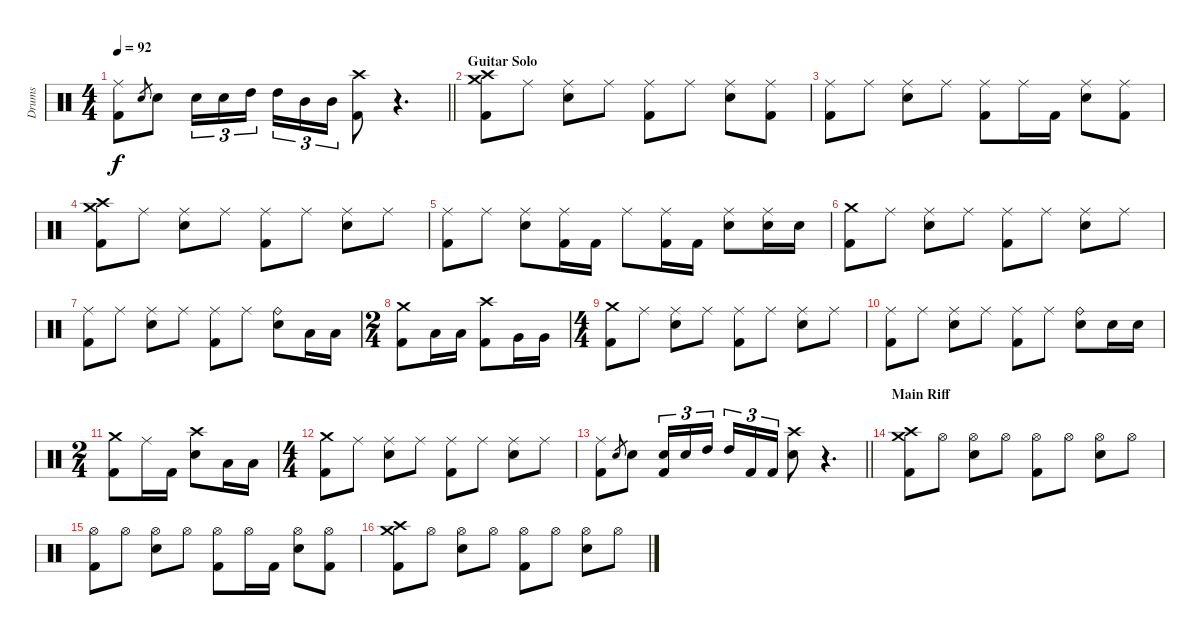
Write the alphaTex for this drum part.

\track ("Drums" "Drums") {instrument percussion}
\staff {score}
\articulation defaults
\ts (4 4)
\tempo 92
\clef neutral
\barLineRight lightlight
\ks c
("Ride (middle)" "Kick (hit) 2").8{dy f} "Electric Snare (hit)".8{gr} "Electric Snare (hit)".8 "Electric Snare (hit)".16{tu (3 2)} "Electric Snare (hit)".16{tu (3 2)} "High Tom (hit)".16{tu (3 2) beam splitsecondary} "High Tom (hit)".16{tu (3 2)} "Mid Tom (hit)".16{tu (3 2)} "Mid Tom (hit)".16{tu (3 2)} ("Crash high (hit)" "Kick (hit) 2").8 r.4{d volume 0} |
\section ("" "Guitar Solo")
("Crash medium (hit)" "Crash high (hit)" "Kick (hit) 2").8{volume 16 balance 8} "Ride (middle)".8 ("Ride (middle)" "Electric Snare (hit)").8 "Ride (middle)".8 ("Ride (middle)" "Kick (hit) 2").8 "Ride (middle)".8 ("Ride (middle)" "Electric Snare (hit)").8 ("Ride (middle)" "Kick (hit) 2").8 |
("Ride (middle)" "Kick (hit) 2").8 "Ride (middle)".8 ("Ride (middle)" "Electric Snare (hit)").8 "Ride (middle)".8 ("Ride (middle)" "Kick (hit) 2").8 "Ride (middle)".16 "Kick (hit) 2".16 ("Ride (middle)" "Electric Snare (hit)").8 ("Ride (middle)" "Kick (hit) 2").8 |
("Crash medium (hit)" "Crash high (hit)" "Kick (hit) 2").8 "Ride (middle)".8 ("Ride (middle)" "Electric Snare (hit)").8 "Ride (middle)".8 ("Ride (middle)" "Kick (hit) 2").8 "Ride (middle)".8 ("Ride (middle)" "Electric Snare (hit)").8 "Ride (middle)".8 |
("Ride (middle)" "Kick (hit) 2").8 "Ride (middle)".8 ("Ride (middle)" "Electric Snare (hit)").8 ("Ride (middle)" "Kick (hit) 2").16 "Kick (hit) 2".16 "Ride (middle)".8 ("Ride (middle)" "Kick (hit) 2").16 "Kick (hit) 2".16 ("Ride (middle)" "Electric Snare (hit)").8 ("Ride (middle)" "Electric Snare (hit)").16 "Electric Snare (hit)".16 |
("Crash medium (hit)" "Kick (hit) 2").8 "Ride (middle)".8 ("Ride (middle)" "Electric Snare (hit)").8 "Ride (middle)".8 ("Ride (middle)" "Kick (hit) 2").8 "Ride (middle)".8 ("Ride (middle)" "Electric Snare (hit)").8 "Ride (middle)".8 |
("Ride (middle)" "Kick (hit) 2").8 "Ride (middle)".8 ("Ride (middle)" "Electric Snare (hit)").8 "Ride (middle)".8 ("Ride (middle)" "Kick (hit) 2").8 "Ride (middle)".8 ("Ride (bell)" "Electric Snare (hit)").8 "Low Floor Tom (hit)".16 "Low Floor Tom (hit)".16 |
\ts (2 4)
("Crash medium (hit)" "Kick (hit) 2").8 "Low Tom (hit)".16 "Low Tom (hit)".16 ("Crash high (hit)" "Kick (hit) 2").8 "Very Low Tom (hit)".16 "Very Low Tom (hit)".16 |
\ts (4 4)
("Crash medium (hit)" "Kick (hit) 2").8 "Ride (middle)".8 ("Ride (middle)" "Electric Snare (hit)").8 "Ride (middle)".8 ("Ride (middle)" "Kick (hit) 2").8 "Ride (middle)".8 ("Ride (middle)" "Electric Snare (hit)").8 "Ride (middle)".8 |
("Ride (middle)" "Kick (hit) 2").8 "Ride (middle)".8 ("Ride (middle)" "Electric Snare (hit)").8 "Ride (middle)".8 ("Ride (middle)" "Kick (hit) 2").8 "Ride (middle)".8 ("Ride (bell)" "Electric Snare (hit)").8 "Electric Snare (hit)".16 "Electric Snare (hit)".16 |
\ts (2 4)
("Crash medium (hit)" "Kick (hit) 2").8 "Ride (middle)".16 "Kick (hit) 2".16 ("Crash high (hit)" "Electric Snare (hit)").8 "Low Floor Tom (hit)".16 "Low Floor Tom (hit)".16 |
\ts (4 4)
("Crash medium (hit)" "Kick (hit) 2").8 "Ride (middle)".8 ("Ride (middle)" "Electric Snare (hit)").8 "Ride (middle)".8 ("Ride (middle)" "Kick (hit) 2").8 "Ride (middle)".8 ("Ride (middle)" "Electric Snare (hit)").8 "Ride (middle)".8 |
\barLineRight lightlight
("Ride (middle)" "Kick (hit) 2").8 "Electric Snare (hit)".8{gr} "Electric Snare (hit)".8 ("Electric Snare (hit)" "Kick (hit) 2").16{tu (3 2)} "Electric Snare (hit)".16{tu (3 2)} "High Tom (hit)".16{tu (3 2) beam splitsecondary} "High Tom (hit)".16{tu (3 2)} "Kick (hit) 2".16{tu (3 2)} "Kick (hit) 2".16{tu (3 2)} ("Crash high (hit)" "Electric Snare (hit)").8 r.4{d volume 0} |
\section ("" "Main Riff")
("Crash medium (hit)" "Crash high (hit)" "Kick (hit) 2").8{volume 16} "Hi-Hat (open)".8 ("Hi-Hat (open)" "Electric Snare (hit)").8 "Hi-Hat (open)".8 ("Hi-Hat (open)" "Kick (hit) 2").8 "Hi-Hat (open)".8 ("Hi-Hat (open)" "Electric Snare (hit)").8 "Hi-Hat (open)".8 |
("Hi-Hat (open)" "Kick (hit) 2").8 "Hi-Hat (open)".8 ("Hi-Hat (open)" "Electric Snare (hit)").8 "Hi-Hat (open)".8 ("Hi-Hat (open)" "Kick (hit) 2").8 "Hi-Hat (open)".16 "Kick (hit) 2".16 ("Hi-Hat (open)" "Electric Snare (hit)").8 ("Hi-Hat (open)" "Kick (hit) 2").8 |
("Crash medium (hit)" "Crash high (hit)" "Kick (hit) 2").8 "Hi-Hat (open)".8 ("Hi-Hat (open)" "Electric Snare (hit)").8 "Hi-Hat (open)".8 ("Hi-Hat (open)" "Kick (hit) 2").8 "Hi-Hat (open)".8 ("Hi-Hat (open)" "Electric Snare (hit)").8 "Hi-Hat (open)".8
